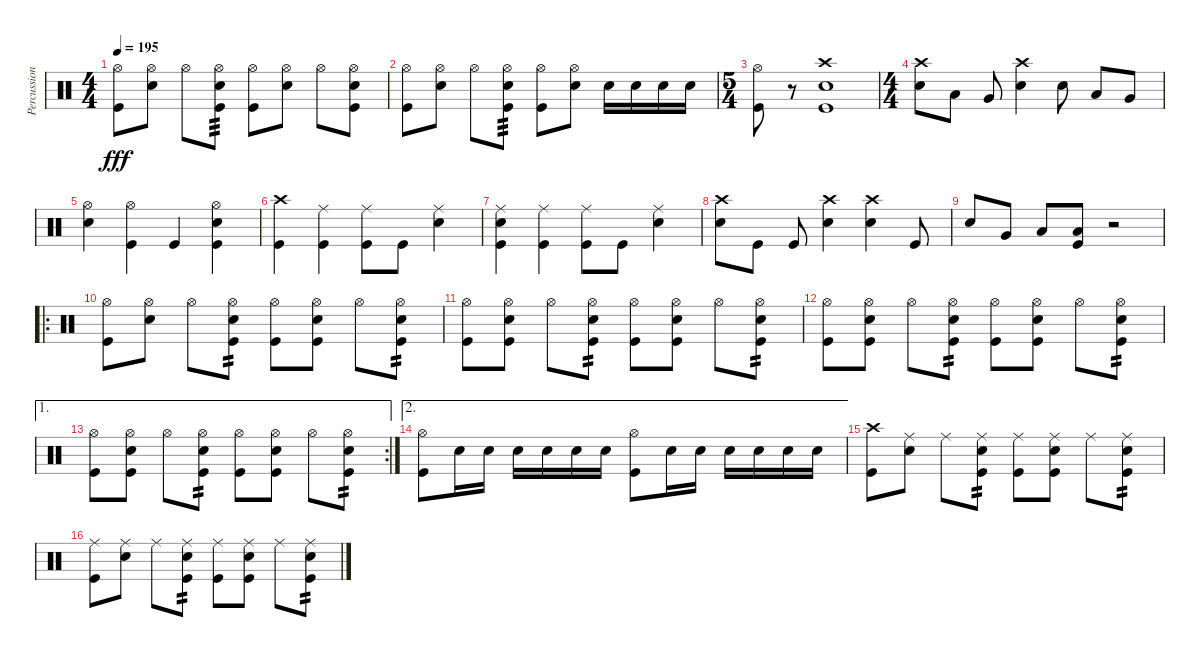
\track ("Percussions" "Percussion") {instrument percussion}
\staff {score}
\articulation defaults
\ts (4 4)
\tempo 195
\clef neutral
\ks c
("Hi-Hat (open)" "Kick (hit)").8{dy fff} ("Hi-Hat (open)" "Electric Snare (hit)").8 "Hi-Hat (open)".8 ("Hi-Hat (open)" "Electric Snare (hit)" "Kick (hit)").8{tp 3} ("Hi-Hat (open)" "Kick (hit)").8 ("Hi-Hat (open)" "Electric Snare (hit)").8 "Hi-Hat (open)".8 ("Hi-Hat (open)" "Electric Snare (hit)" "Kick (hit)").8 |
("Hi-Hat (open)" "Kick (hit)").8 ("Hi-Hat (open)" "Electric Snare (hit)").8 "Hi-Hat (open)".8 ("Hi-Hat (open)" "Electric Snare (hit)" "Kick (hit)").8{tp 3} ("Hi-Hat (open)" "Kick (hit)").8 ("Hi-Hat (open)" "Electric Snare (hit)").8 "Electric Snare (hit)".16 "Electric Snare (hit)".16 "Electric Snare (hit)".16 "Electric Snare (hit)".16 |
\ts (5 4)
("Hi-Hat (open)" "Kick (hit)").8 r.8 ("Crash high (hit)" "Electric Snare (hit)" "Kick (hit)").1 |
\ts (4 4)
("Crash high (hit)" "Electric Snare (hit)").8 "Low Tom (hit)".8 "Very Low Tom (hit)".8 ("Crash high (hit)" "Electric Snare (hit)").4 "Electric Snare (hit)".8 "Low Tom (hit)".8 "Very Low Tom (hit)".8 |
("Hi-Hat (open)" "Electric Snare (hit)").4 ("Hi-Hat (open)" "Kick (hit)").4 "Kick (hit)".4 ("Hi-Hat (open)" "Electric Snare (hit)" "Kick (hit)").4 |
("Crash high (hit)" "Kick (hit)").4 ("Ride (middle)" "Kick (hit)").4 ("Ride (middle)" "Kick (hit)").8 "Kick (hit)".8 ("Ride (middle)" "Electric Snare (hit)").4 |
("Ride (middle)" "Electric Snare (hit)" "Kick (hit)").4 ("Ride (middle)" "Kick (hit)").4 ("Ride (middle)" "Kick (hit)").8 "Kick (hit)".8 ("Ride (middle)" "Electric Snare (hit)").4 |
("Crash high (hit)" "Electric Snare (hit)").8 "Kick (hit)".8 "Kick (hit)".8 ("Crash high (hit)" "Electric Snare (hit)").4 ("Crash high (hit)" "Electric Snare (hit)").4 "Kick (hit)".8 |
"Electric Snare (hit)".8 "Very Low Tom (hit)".8 "Low Tom (hit)".8 ("Low Floor Tom (hit)" "Kick (hit)").8 r.2 |
\ro
("Hi-Hat (open)" "Kick (hit)").8 ("Hi-Hat (open)" "Electric Snare (hit)").8 "Hi-Hat (open)".8 ("Hi-Hat (open)" "Electric Snare (hit)" "Kick (hit)").8{tp 2} ("Hi-Hat (open)" "Kick (hit)").8 ("Hi-Hat (open)" "Electric Snare (hit)" "Kick (hit)").8 "Hi-Hat (open)".8 ("Hi-Hat (open)" "Electric Snare (hit)" "Kick (hit)").8{tp 2} |
("Hi-Hat (open)" "Kick (hit)").8 ("Hi-Hat (open)" "Electric Snare (hit)" "Kick (hit)").8 "Hi-Hat (open)".8 ("Hi-Hat (open)" "Electric Snare (hit)" "Kick (hit)").8{tp 2} ("Hi-Hat (open)" "Kick (hit)").8 ("Hi-Hat (open)" "Electric Snare (hit)" "Kick (hit)").8 "Hi-Hat (open)".8 ("Hi-Hat (open)" "Electric Snare (hit)" "Kick (hit)").8{tp 2} |
("Hi-Hat (open)" "Kick (hit)").8 ("Hi-Hat (open)" "Electric Snare (hit)" "Kick (hit)").8 "Hi-Hat (open)".8 ("Hi-Hat (open)" "Electric Snare (hit)" "Kick (hit)").8{tp 2} ("Hi-Hat (open)" "Kick (hit)").8 ("Hi-Hat (open)" "Electric Snare (hit)" "Kick (hit)").8 "Hi-Hat (open)".8 ("Hi-Hat (open)" "Electric Snare (hit)" "Kick (hit)").8{tp 2} |
\ae 1
\rc 2
("Hi-Hat (open)" "Kick (hit)").8 ("Hi-Hat (open)" "Electric Snare (hit)" "Kick (hit)").8 "Hi-Hat (open)".8 ("Hi-Hat (open)" "Electric Snare (hit)" "Kick (hit)").8{tp 2} ("Hi-Hat (open)" "Kick (hit)").8 ("Hi-Hat (open)" "Electric Snare (hit)" "Kick (hit)").8 "Hi-Hat (open)".8 ("Hi-Hat (open)" "Electric Snare (hit)" "Kick (hit)").8{tp 2} |
\ae 2
("Hi-Hat (open)" "Kick (hit)").8 "Electric Snare (hit)".16 "Electric Snare (hit)".16 "Electric Snare (hit)".16 "Electric Snare (hit)".16 "Electric Snare (hit)".16 "Electric Snare (hit)".16 ("Hi-Hat (open)" "Kick (hit)").8 "Electric Snare (hit)".16 "Electric Snare (hit)".16 "Electric Snare (hit)".16 "Electric Snare (hit)".16 "Electric Snare (hit)".16 "Electric Snare (hit)".16 |
("Crash high (hit)" "Kick (hit)").8 ("Ride (middle)" "Electric Snare (hit)").8 "Ride (middle)".8 ("Ride (middle)" "Electric Snare (hit)" "Kick (hit)").8{tp 2} ("Ride (middle)" "Kick (hit)").8 ("Ride (middle)" "Electric Snare (hit)" "Kick (hit)").8 "Ride (middle)".8 ("Ride (middle)" "Electric Snare (hit)" "Kick (hit)").8{tp 2} |
("Ride (middle)" "Kick (hit)").8 ("Ride (middle)" "Electric Snare (hit)").8 "Ride (middle)".8 ("Ride (middle)" "Electric Snare (hit)" "Kick (hit)").8{tp 2} ("Ride (middle)" "Kick (hit)").8 ("Ride (middle)" "Electric Snare (hit)" "Kick (hit)").8 "Ride (middle)".8 ("Ride (middle)" "Electric Snare (hit)" "Kick (hit)").8{tp 2}
